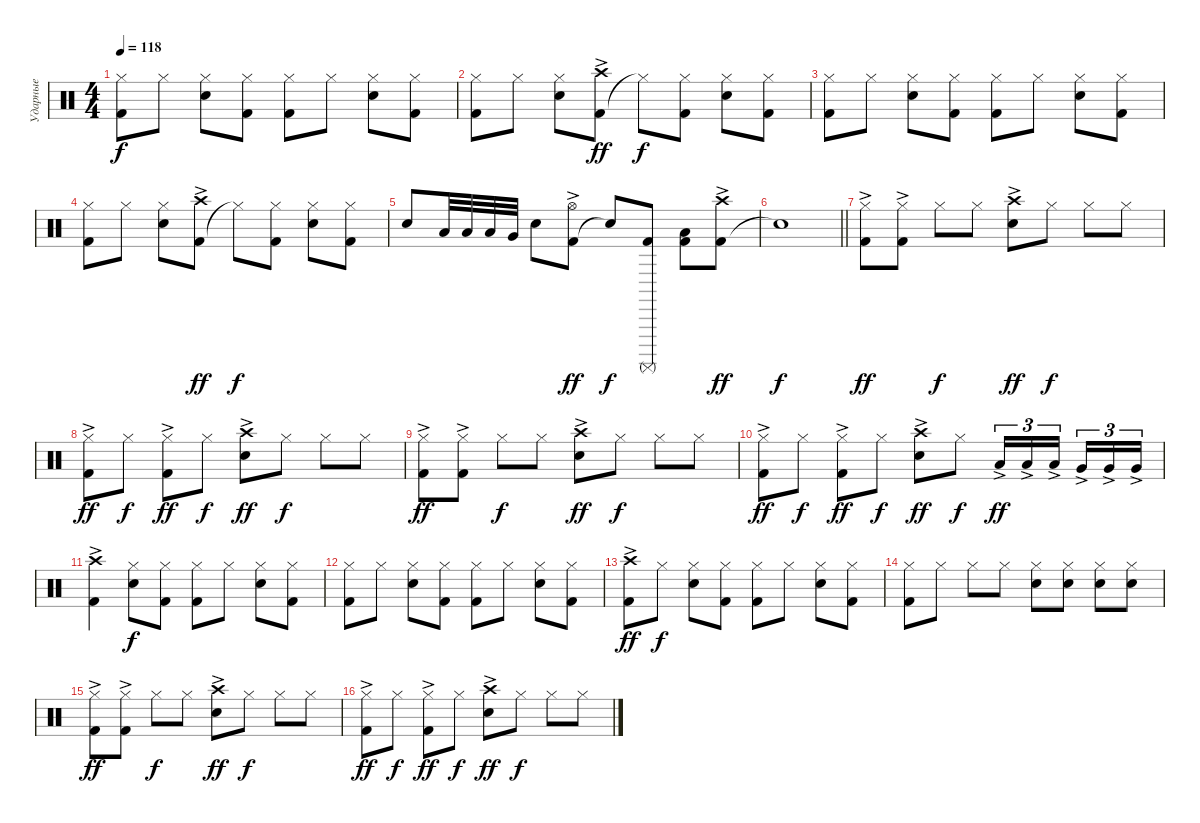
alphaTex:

\track ("Ударные" "Ударные") {instrument percussion}
\staff
\articulation defaults
\ts (4 4)
\tempo 118
\clef neutral
\ks c
("Kick (hit) 2" "Hi-Hat (closed)").8{dy f} "Hi-Hat (closed)".8 ("Snare (hit) 2" "Hi-Hat (closed)").8 ("Kick (hit) 2" "Hi-Hat (closed)").8 ("Kick (hit) 2" "Hi-Hat (closed)").8 "Hi-Hat (closed)".8 ("Snare (hit) 2" "Hi-Hat (closed)").8 ("Kick (hit) 2" "Hi-Hat (closed)").8 |
("Kick (hit) 2" "Hi-Hat (closed)").8 "Hi-Hat (closed)".8 ("Snare (hit) 2" "Hi-Hat (closed)").8 ("Kick (hit) 2" "Crash high (hit)"{ac}).8{dy ff} "Hi-Hat (closed)"{t}.8{dy f} ("Kick (hit) 2" "Hi-Hat (closed)").8 ("Snare (hit) 2" "Hi-Hat (closed)").8 ("Kick (hit) 2" "Hi-Hat (closed)").8 |
("Kick (hit) 2" "Hi-Hat (closed)").8 "Hi-Hat (closed)".8 ("Snare (hit) 2" "Hi-Hat (closed)").8 ("Kick (hit) 2" "Hi-Hat (closed)").8 ("Kick (hit) 2" "Hi-Hat (closed)").8 "Hi-Hat (closed)".8 ("Snare (hit) 2" "Hi-Hat (closed)").8 ("Kick (hit) 2" "Hi-Hat (closed)").8 |
("Kick (hit) 2" "Hi-Hat (closed)").8 "Hi-Hat (closed)".8 ("Snare (hit) 2" "Hi-Hat (closed)").8 ("Kick (hit) 2" "Crash high (hit)"{ac}).8{dy ff} "Hi-Hat (closed)"{t}.8{dy f} ("Kick (hit) 2" "Hi-Hat (closed)").8 ("Snare (hit) 2" "Hi-Hat (closed)").8 ("Kick (hit) 2" "Hi-Hat (closed)").8 |
"Snare (hit) 2".8 "Low Tom (hit)".32 "Low Tom (hit)".32 "Low Tom (hit)".32 "Very Low Tom (hit)".32 "Snare (hit) 2".8 ("Kick (hit) 2" "Hi-Hat (open)"{ac}).8{dy ff} "Snare (hit)"{t}.8{dy f} ("Kick (hit) 2" "Surdo (mute)").8 ("Kick (hit) 2" "Low Floor Tom (hit)").8 ("Kick (hit) 2" "Crash high (hit)"{ac}).8{dy ff} |
\barLineRight lightlight "Snare (hit) 2"{t}.1{dy f}
|
("Kick (hit) 2"{ac} "Hi-Hat (closed)").8{dy ff} ("Kick (hit) 2"{ac} "Hi-Hat (closed)").8 "Hi-Hat (closed)".8{dy f} "Hi-Hat (closed)".8 ("Snare (hit) 2" "Crash high (hit)"{ac}).8{dy ff} "Hi-Hat (closed)".8{dy f} "Hi-Hat (closed)".8 "Hi-Hat (closed)".8 |
("Kick (hit) 2"{ac} "Hi-Hat (closed)").8{dy ff} "Hi-Hat (closed)".8{dy f} ("Kick (hit) 2"{ac} "Hi-Hat (closed)").8{dy ff} "Hi-Hat (closed)".8{dy f} ("Snare (hit) 2" "Crash high (hit)"{ac}).8{dy ff} "Hi-Hat (closed)".8{dy f} "Hi-Hat (closed)".8 "Hi-Hat (closed)".8 |
("Kick (hit) 2"{ac} "Hi-Hat (closed)").8{dy ff} ("Kick (hit) 2"{ac} "Hi-Hat (closed)").8 "Hi-Hat (closed)".8{dy f} "Hi-Hat (closed)".8 ("Snare (hit) 2" "Crash high (hit)"{ac}).8{dy ff} "Hi-Hat (closed)".8{dy f} "Hi-Hat (closed)".8 "Hi-Hat (closed)".8 |
("Kick (hit) 2"{ac} "Hi-Hat (closed)").8{dy ff} "Hi-Hat (closed)".8{dy f} ("Kick (hit) 2"{ac} "Hi-Hat (closed)").8{dy ff} "Hi-Hat (closed)".8{dy f} ("Snare (hit) 2" "Crash high (hit)"{ac}).8{dy ff} "Hi-Hat (closed)".8{dy f} "Low Tom (hit)"{ac}.16{tu (3 2) dy ff} "Low Tom (hit)"{ac}.16{tu (3 2)} "Low Tom (hit)"{ac}.16{tu (3 2) beam splitsecondary} "Very Low Tom (hit)"{ac}.16{tu (3 2)} "Very Low Tom (hit)"{ac}.16{tu (3 2)} "Very Low Tom (hit)"{ac}.16{tu (3 2)} |
("Kick (hit) 2" "Crash high (hit)"{ac}).4 ("Snare (hit) 2" "Hi-Hat (closed)").8{dy f} ("Kick (hit) 2" "Hi-Hat (closed)").8 ("Kick (hit) 2" "Hi-Hat (closed)").8 "Hi-Hat (closed)".8 ("Snare (hit) 2" "Hi-Hat (closed)").8 ("Kick (hit) 2" "Hi-Hat (closed)").8 |
("Kick (hit) 2" "Hi-Hat (closed)").8 "Hi-Hat (closed)".8 ("Snare (hit) 2" "Hi-Hat (closed)").8 ("Kick (hit) 2" "Hi-Hat (closed)").8 ("Kick (hit) 2" "Hi-Hat (closed)").8 "Hi-Hat (closed)".8 ("Snare (hit) 2" "Hi-Hat (closed)").8 ("Kick (hit) 2" "Hi-Hat (closed)").8 |
("Kick (hit) 2" "Crash high (hit)"{ac}).8{dy ff} "Hi-Hat (closed)".8{dy f} ("Snare (hit) 2" "Hi-Hat (closed)").8 ("Kick (hit) 2" "Hi-Hat (closed)").8 ("Kick (hit) 2" "Hi-Hat (closed)").8 "Hi-Hat (closed)".8 ("Snare (hit) 2" "Hi-Hat (closed)").8 ("Kick (hit) 2" "Hi-Hat (closed)").8 |
("Kick (hit) 2" "Hi-Hat (closed)").8 "Hi-Hat (closed)".8 "Hi-Hat (closed)".8 "Hi-Hat (closed)".8 ("Snare (hit) 2" "Hi-Hat (closed)").8 ("Snare (hit) 2" "Hi-Hat (closed)").8 ("Snare (hit) 2" "Hi-Hat (closed)").8 ("Snare (hit) 2" "Hi-Hat (closed)").8 |
("Kick (hit) 2"{ac} "Hi-Hat (closed)").8{dy ff} ("Kick (hit) 2"{ac} "Hi-Hat (closed)").8 "Hi-Hat (closed)".8{dy f} "Hi-Hat (closed)".8 ("Snare (hit) 2" "Crash high (hit)"{ac}).8{dy ff} "Hi-Hat (closed)".8{dy f} "Hi-Hat (closed)".8 "Hi-Hat (closed)".8 |
("Kick (hit) 2"{ac} "Hi-Hat (closed)").8{dy ff} "Hi-Hat (closed)".8{dy f} ("Kick (hit) 2"{ac} "Hi-Hat (closed)").8{dy ff} "Hi-Hat (closed)".8{dy f} ("Snare (hit) 2" "Crash high (hit)"{ac}).8{dy ff} "Hi-Hat (closed)".8{dy f} "Hi-Hat (closed)".8 "Hi-Hat (closed)".8
